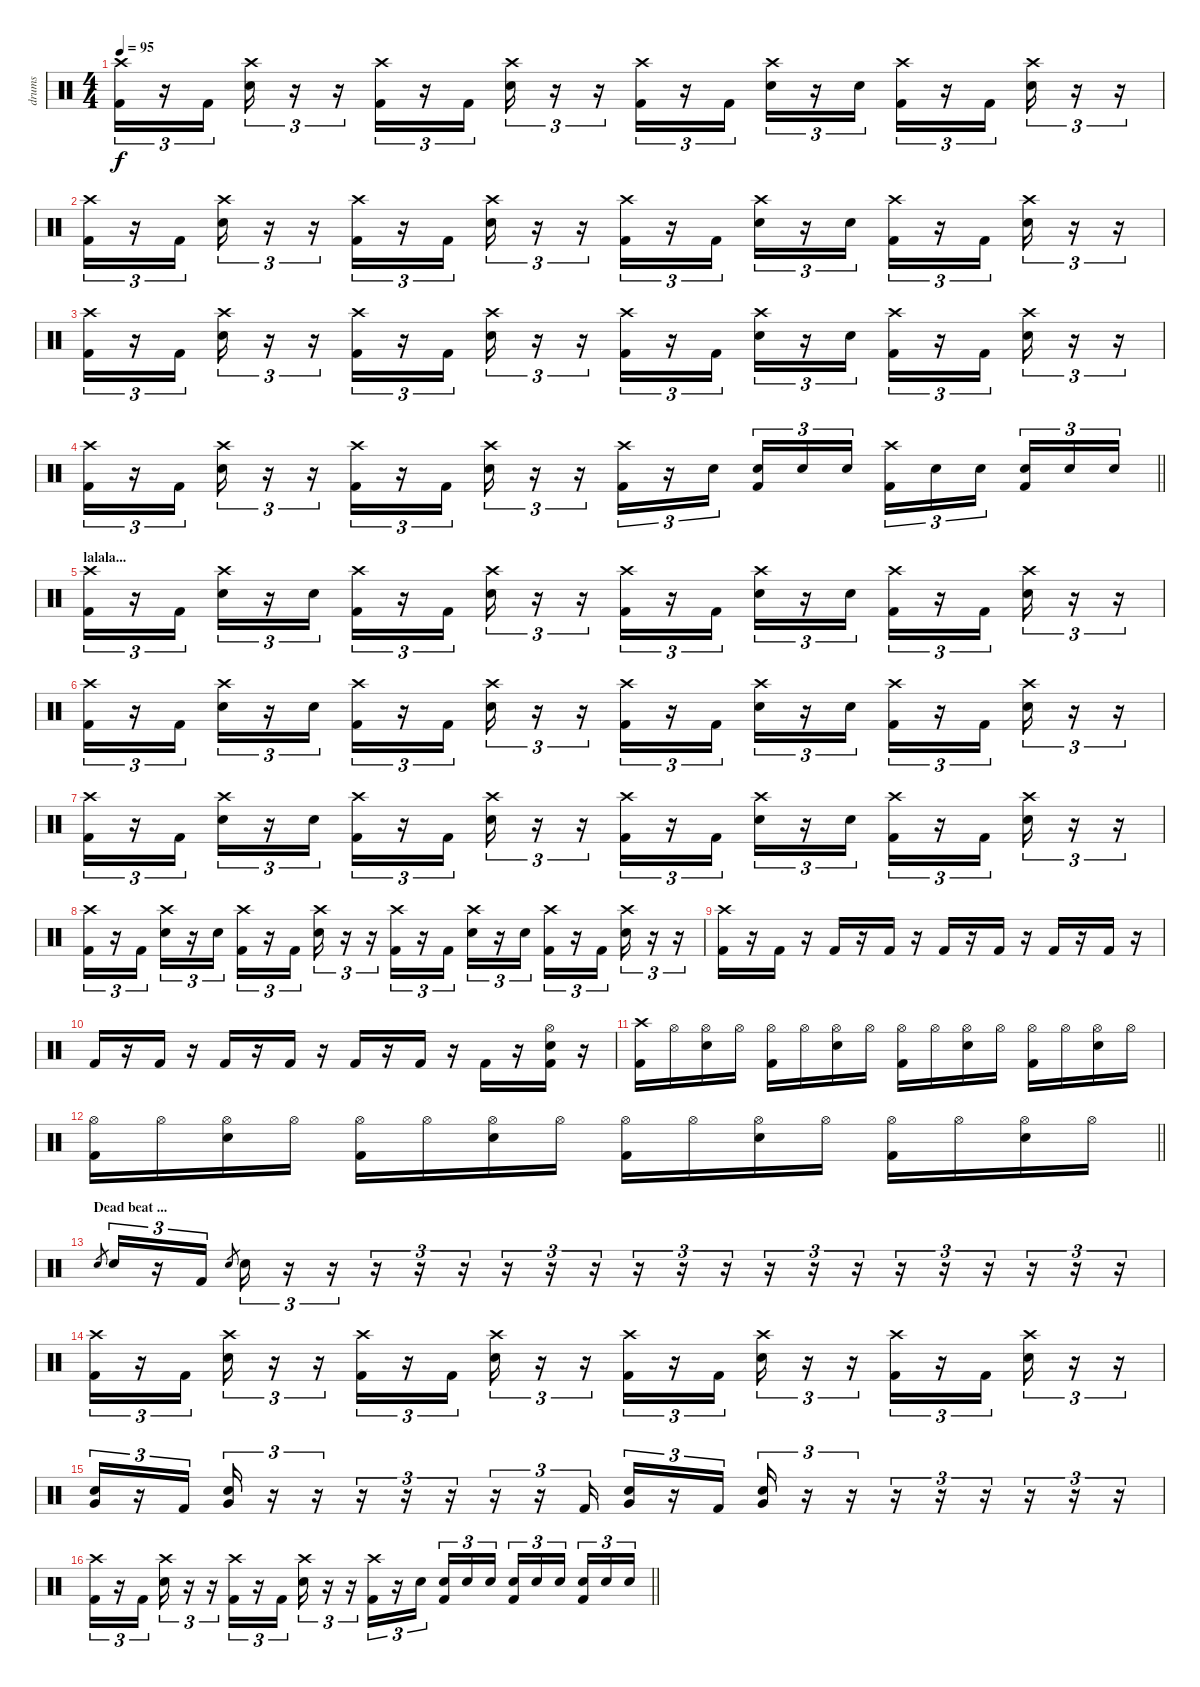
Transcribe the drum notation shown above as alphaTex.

\track ("drums" "drums") {instrument percussion}
\staff {score}
\articulation defaults
\ts (4 4)
\tempo 95
\clef neutral
\ks c
("Crash high (hit)" "Kick (hit) 2").16{tu (3 2) dy f} r.16{tu (3 2)} "Kick (hit) 2".16{tu (3 2)} ("Crash high (hit)" "Electric Snare (hit)").16{tu (3 2)} r.16{tu (3 2)} r.16{tu (3 2)} ("Crash high (hit)" "Kick (hit) 2").16{tu (3 2)} r.16{tu (3 2)} "Kick (hit) 2".16{tu (3 2)} ("Crash high (hit)" "Electric Snare (hit)").16{tu (3 2)} r.16{tu (3 2)} r.16{tu (3 2)} ("Crash high (hit)" "Kick (hit) 2").16{tu (3 2)} r.16{tu (3 2)} "Kick (hit) 2".16{tu (3 2)} ("Crash high (hit)" "Electric Snare (hit)").16{tu (3 2)} r.16{tu (3 2)} "Electric Snare (hit)".16{tu (3 2)} ("Crash high (hit)" "Kick (hit) 2").16{tu (3 2)} r.16{tu (3 2)} "Kick (hit) 2".16{tu (3 2)} ("Crash high (hit)" "Electric Snare (hit)").16{tu (3 2)} r.16{tu (3 2)} r.16{tu (3 2)} |
("Crash high (hit)" "Kick (hit) 2").16{tu (3 2)} r.16{tu (3 2)} "Kick (hit) 2".16{tu (3 2)} ("Crash high (hit)" "Electric Snare (hit)").16{tu (3 2)} r.16{tu (3 2)} r.16{tu (3 2)} ("Crash high (hit)" "Kick (hit) 2").16{tu (3 2)} r.16{tu (3 2)} "Kick (hit) 2".16{tu (3 2)} ("Crash high (hit)" "Electric Snare (hit)").16{tu (3 2)} r.16{tu (3 2)} r.16{tu (3 2)} ("Crash high (hit)" "Kick (hit) 2").16{tu (3 2)} r.16{tu (3 2)} "Kick (hit) 2".16{tu (3 2)} ("Crash high (hit)" "Electric Snare (hit)").16{tu (3 2)} r.16{tu (3 2)} "Electric Snare (hit)".16{tu (3 2)} ("Crash high (hit)" "Kick (hit) 2").16{tu (3 2)} r.16{tu (3 2)} "Kick (hit) 2".16{tu (3 2)} ("Crash high (hit)" "Electric Snare (hit)").16{tu (3 2)} r.16{tu (3 2)} r.16{tu (3 2)} |
("Crash high (hit)" "Kick (hit) 2").16{tu (3 2)} r.16{tu (3 2)} "Kick (hit) 2".16{tu (3 2)} ("Crash high (hit)" "Electric Snare (hit)").16{tu (3 2)} r.16{tu (3 2)} r.16{tu (3 2)} ("Crash high (hit)" "Kick (hit) 2").16{tu (3 2)} r.16{tu (3 2)} "Kick (hit) 2".16{tu (3 2)} ("Crash high (hit)" "Electric Snare (hit)").16{tu (3 2)} r.16{tu (3 2)} r.16{tu (3 2)} ("Crash high (hit)" "Kick (hit) 2").16{tu (3 2)} r.16{tu (3 2)} "Kick (hit) 2".16{tu (3 2)} ("Crash high (hit)" "Electric Snare (hit)").16{tu (3 2)} r.16{tu (3 2)} "Electric Snare (hit)".16{tu (3 2)} ("Crash high (hit)" "Kick (hit) 2").16{tu (3 2)} r.16{tu (3 2)} "Kick (hit) 2".16{tu (3 2)} ("Crash high (hit)" "Electric Snare (hit)").16{tu (3 2)} r.16{tu (3 2)} r.16{tu (3 2)} |
\barLineRight lightlight
("Crash high (hit)" "Kick (hit) 2").16{tu (3 2)} r.16{tu (3 2)} "Kick (hit) 2".16{tu (3 2)} ("Crash high (hit)" "Electric Snare (hit)").16{tu (3 2)} r.16{tu (3 2)} r.16{tu (3 2)} ("Crash high (hit)" "Kick (hit) 2").16{tu (3 2)} r.16{tu (3 2)} "Kick (hit) 2".16{tu (3 2)} ("Crash high (hit)" "Electric Snare (hit)").16{tu (3 2)} r.16{tu (3 2)} r.16{tu (3 2)} ("Crash high (hit)" "Kick (hit) 2").16{tu (3 2)} r.16{tu (3 2)} "Electric Snare (hit)".16{tu (3 2) beam splitsecondary} ("Electric Snare (hit)" "Kick (hit) 2").16{tu (3 2)} "Electric Snare (hit)".16{tu (3 2)} "Electric Snare (hit)".16{tu (3 2)} ("Crash high (hit)" "Kick (hit) 2").16{tu (3 2)} "Electric Snare (hit)".16{tu (3 2)} "Electric Snare (hit)".16{tu (3 2) beam splitsecondary} ("Electric Snare (hit)" "Kick (hit) 2").16{tu (3 2)} "Electric Snare (hit)".16{tu (3 2)} "Electric Snare (hit)".16{tu (3 2)} |
\section ("" "lalala...")
("Crash high (hit)" "Kick (hit) 2").16{tu (3 2)} r.16{tu (3 2)} "Kick (hit) 2".16{tu (3 2)} ("Crash high (hit)" "Electric Snare (hit)").16{tu (3 2)} r.16{tu (3 2)} "Electric Snare (hit)".16{tu (3 2)} ("Crash high (hit)" "Kick (hit) 2").16{tu (3 2)} r.16{tu (3 2)} "Kick (hit) 2".16{tu (3 2)} ("Crash high (hit)" "Electric Snare (hit)").16{tu (3 2)} r.16{tu (3 2)} r.16{tu (3 2)} ("Crash high (hit)" "Kick (hit) 2").16{tu (3 2)} r.16{tu (3 2)} "Kick (hit) 2".16{tu (3 2)} ("Crash high (hit)" "Electric Snare (hit)").16{tu (3 2)} r.16{tu (3 2)} "Electric Snare (hit)".16{tu (3 2)} ("Crash high (hit)" "Kick (hit) 2").16{tu (3 2)} r.16{tu (3 2)} "Kick (hit) 2".16{tu (3 2)} ("Crash high (hit)" "Electric Snare (hit)").16{tu (3 2)} r.16{tu (3 2)} r.16{tu (3 2)} |
("Crash high (hit)" "Kick (hit) 2").16{tu (3 2)} r.16{tu (3 2)} "Kick (hit) 2".16{tu (3 2)} ("Crash high (hit)" "Electric Snare (hit)").16{tu (3 2)} r.16{tu (3 2)} "Electric Snare (hit)".16{tu (3 2)} ("Crash high (hit)" "Kick (hit) 2").16{tu (3 2)} r.16{tu (3 2)} "Kick (hit) 2".16{tu (3 2)} ("Crash high (hit)" "Electric Snare (hit)").16{tu (3 2)} r.16{tu (3 2)} r.16{tu (3 2)} ("Crash high (hit)" "Kick (hit) 2").16{tu (3 2)} r.16{tu (3 2)} "Kick (hit) 2".16{tu (3 2)} ("Crash high (hit)" "Electric Snare (hit)").16{tu (3 2)} r.16{tu (3 2)} "Electric Snare (hit)".16{tu (3 2)} ("Crash high (hit)" "Kick (hit) 2").16{tu (3 2)} r.16{tu (3 2)} "Kick (hit) 2".16{tu (3 2)} ("Crash high (hit)" "Electric Snare (hit)").16{tu (3 2)} r.16{tu (3 2)} r.16{tu (3 2)} |
("Crash high (hit)" "Kick (hit) 2").16{tu (3 2)} r.16{tu (3 2)} "Kick (hit) 2".16{tu (3 2)} ("Crash high (hit)" "Electric Snare (hit)").16{tu (3 2)} r.16{tu (3 2)} "Electric Snare (hit)".16{tu (3 2)} ("Crash high (hit)" "Kick (hit) 2").16{tu (3 2)} r.16{tu (3 2)} "Kick (hit) 2".16{tu (3 2)} ("Crash high (hit)" "Electric Snare (hit)").16{tu (3 2)} r.16{tu (3 2)} r.16{tu (3 2)} ("Crash high (hit)" "Kick (hit) 2").16{tu (3 2)} r.16{tu (3 2)} "Kick (hit) 2".16{tu (3 2)} ("Crash high (hit)" "Electric Snare (hit)").16{tu (3 2)} r.16{tu (3 2)} "Electric Snare (hit)".16{tu (3 2)} ("Crash high (hit)" "Kick (hit) 2").16{tu (3 2)} r.16{tu (3 2)} "Kick (hit) 2".16{tu (3 2)} ("Crash high (hit)" "Electric Snare (hit)").16{tu (3 2)} r.16{tu (3 2)} r.16{tu (3 2)} |
("Crash high (hit)" "Kick (hit) 2").16{tu (3 2)} r.16{tu (3 2)} "Kick (hit) 2".16{tu (3 2)} ("Crash high (hit)" "Electric Snare (hit)").16{tu (3 2)} r.16{tu (3 2)} "Electric Snare (hit)".16{tu (3 2)} ("Crash high (hit)" "Kick (hit) 2").16{tu (3 2)} r.16{tu (3 2)} "Kick (hit) 2".16{tu (3 2)} ("Crash high (hit)" "Electric Snare (hit)").16{tu (3 2)} r.16{tu (3 2)} r.16{tu (3 2)} ("Crash high (hit)" "Kick (hit) 2").16{tu (3 2)} r.16{tu (3 2)} "Kick (hit) 2".16{tu (3 2)} ("Crash high (hit)" "Electric Snare (hit)").16{tu (3 2)} r.16{tu (3 2)} "Electric Snare (hit)".16{tu (3 2)} ("Crash high (hit)" "Kick (hit) 2").16{tu (3 2)} r.16{tu (3 2)} "Kick (hit) 2".16{tu (3 2)} ("Crash high (hit)" "Electric Snare (hit)").16{tu (3 2)} r.16{tu (3 2)} r.16{tu (3 2)} |
("Crash high (hit)" "Kick (hit) 2").16 r.16 "Kick (hit) 2".16 r.16 "Kick (hit) 2".16 r.16 "Kick (hit) 2".16 r.16 "Kick (hit) 2".16 r.16 "Kick (hit) 2".16 r.16 "Kick (hit) 2".16 r.16 "Kick (hit) 2".16 r.16 |
"Kick (hit) 2".16 r.16 "Kick (hit) 2".16 r.16 "Kick (hit) 2".16 r.16 "Kick (hit) 2".16 r.16 "Kick (hit) 2".16 r.16 "Kick (hit) 2".16 r.16 "Kick (hit) 2".16 r.16 ("Hi-Hat (open)" "Electric Snare (hit)" "Kick (hit) 2").16 r.16 |
("Crash high (hit)" "Kick (hit) 2").16 "Hi-Hat (open)".16 ("Hi-Hat (open)" "Electric Snare (hit)").16 "Hi-Hat (open)".16 ("Hi-Hat (open)" "Kick (hit) 2").16 "Hi-Hat (open)".16 ("Hi-Hat (open)" "Electric Snare (hit)").16 "Hi-Hat (open)".16 ("Hi-Hat (open)" "Kick (hit) 2").16 "Hi-Hat (open)".16 ("Hi-Hat (open)" "Electric Snare (hit)").16 "Hi-Hat (open)".16 ("Hi-Hat (open)" "Kick (hit) 2").16 "Hi-Hat (open)".16 ("Hi-Hat (open)" "Electric Snare (hit)").16 "Hi-Hat (open)".16 |
\barLineRight lightlight
("Hi-Hat (open)" "Kick (hit) 2").16 "Hi-Hat (open)".16 ("Hi-Hat (open)" "Electric Snare (hit)").16 "Hi-Hat (open)".16 ("Hi-Hat (open)" "Kick (hit) 2").16 "Hi-Hat (open)".16 ("Hi-Hat (open)" "Electric Snare (hit)").16 "Hi-Hat (open)".16 ("Hi-Hat (open)" "Kick (hit) 2").16 "Hi-Hat (open)".16 ("Hi-Hat (open)" "Electric Snare (hit)").16 "Hi-Hat (open)".16 ("Hi-Hat (open)" "Kick (hit) 2").16 "Hi-Hat (open)".16 ("Hi-Hat (open)" "Electric Snare (hit)").16 "Hi-Hat (open)".16 |
\section ("" "Dead beat ...")
"Electric Snare (hit)".8{gr} "Electric Snare (hit)".16{tu (3 2)} r.16{tu (3 2)} "Kick (hit) 2".16{tu (3 2)} "Electric Snare (hit)".8{gr} "Electric Snare (hit)".16{tu (3 2)} r.16{tu (3 2)} r.16{tu (3 2)} r.16{tu (3 2)} r.16{tu (3 2)} r.16{tu (3 2)} r.16{tu (3 2)} r.16{tu (3 2)} r.16{tu (3 2)} r.16{tu (3 2)} r.16{tu (3 2)} r.16{tu (3 2)} r.16{tu (3 2)} r.16{tu (3 2)} r.16{tu (3 2)} r.16{tu (3 2)} r.16{tu (3 2)} r.16{tu (3 2)} r.16{tu (3 2)} r.16{tu (3 2)} r.16{tu (3 2)} |
("Crash high (hit)" "Kick (hit) 2").16{tu (3 2)} r.16{tu (3 2)} "Kick (hit) 2".16{tu (3 2)} ("Crash high (hit)" "Electric Snare (hit)").16{tu (3 2)} r.16{tu (3 2)} r.16{tu (3 2)} ("Crash high (hit)" "Kick (hit) 2").16{tu (3 2)} r.16{tu (3 2)} "Kick (hit) 2".16{tu (3 2)} ("Crash high (hit)" "Electric Snare (hit)").16{tu (3 2)} r.16{tu (3 2)} r.16{tu (3 2)} ("Crash high (hit)" "Kick (hit) 2").16{tu (3 2)} r.16{tu (3 2)} "Kick (hit) 2".16{tu (3 2)} ("Crash high (hit)" "Electric Snare (hit)").16{tu (3 2)} r.16{tu (3 2)} r.16{tu (3 2)} ("Crash high (hit)" "Kick (hit) 2").16{tu (3 2)} r.16{tu (3 2)} "Kick (hit) 2".16{tu (3 2)} ("Crash high (hit)" "Electric Snare (hit)").16{tu (3 2)} r.16{tu (3 2)} r.16{tu (3 2)} |
("Electric Snare (hit)" "Very Low Tom (hit)").16{tu (3 2)} r.16{tu (3 2)} "Kick (hit) 2".16{tu (3 2)} ("Electric Snare (hit)" "Very Low Tom (hit)").16{tu (3 2)} r.16{tu (3 2)} r.16{tu (3 2)} r.16{tu (3 2)} r.16{tu (3 2)} r.16{tu (3 2)} r.16{tu (3 2)} r.16{tu (3 2)} "Kick (hit) 2".16{tu (3 2)} ("Electric Snare (hit)" "Very Low Tom (hit)").16{tu (3 2)} r.16{tu (3 2)} "Kick (hit) 2".16{tu (3 2)} ("Electric Snare (hit)" "Very Low Tom (hit)").16{tu (3 2)} r.16{tu (3 2)} r.16{tu (3 2)} r.16{tu (3 2)} r.16{tu (3 2)} r.16{tu (3 2)} r.16{tu (3 2)} r.16{tu (3 2)} r.16{tu (3 2)} |
\barLineRight lightlight
("Crash high (hit)" "Kick (hit) 2").16{tu (3 2)} r.16{tu (3 2)} "Kick (hit) 2".16{tu (3 2)} ("Crash high (hit)" "Electric Snare (hit)").16{tu (3 2)} r.16{tu (3 2)} r.16{tu (3 2)} ("Crash high (hit)" "Kick (hit) 2").16{tu (3 2)} r.16{tu (3 2)} "Kick (hit) 2".16{tu (3 2)} ("Crash high (hit)" "Electric Snare (hit)").16{tu (3 2)} r.16{tu (3 2)} r.16{tu (3 2)} ("Crash high (hit)" "Kick (hit) 2").16{tu (3 2)} r.16{tu (3 2)} "Electric Snare (hit)".16{tu (3 2) beam splitsecondary} ("Electric Snare (hit)" "Kick (hit) 2").16{tu (3 2)} "Electric Snare (hit)".16{tu (3 2)} "Electric Snare (hit)".16{tu (3 2)} ("Electric Snare (hit)" "Kick (hit) 2").16{tu (3 2)} "Electric Snare (hit)".16{tu (3 2)} "Electric Snare (hit)".16{tu (3 2) beam splitsecondary} ("Electric Snare (hit)" "Kick (hit) 2").16{tu (3 2)} "Electric Snare (hit)".16{tu (3 2)} "Electric Snare (hit)".16{tu (3 2)}
